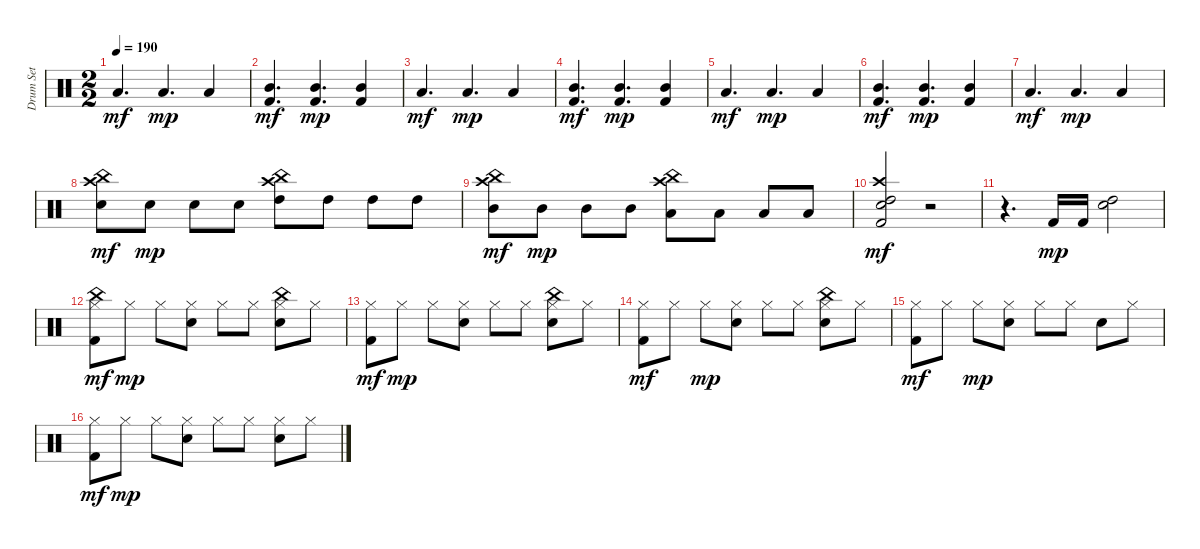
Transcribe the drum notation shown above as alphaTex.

\track ("Drum Set" "Drum Set") {instrument percussion}
\staff {score}
\articulation defaults
\ts (2 2)
\tempo 190
\clef neutral
\ks c "Low Tom (hit)".4{d dy mf} "Low Tom (hit)".4{d dy mp} "Low Tom (hit)".4
|
("Mid Tom (hit)" "Kick (hit) 2").4{d dy mf} ("Kick (hit) 2" "Mid Tom (hit)").4{d dy mp} ("Kick (hit) 2" "Mid Tom (hit)").4 |
"Low Tom (hit)".4{d dy mf} "Low Tom (hit)".4{d dy mp} "Low Tom (hit)".4 |
("Kick (hit) 2" "Mid Tom (hit)").4{d dy mf} ("Mid Tom (hit)" "Kick (hit) 2").4{d dy mp} ("Kick (hit) 2" "Mid Tom (hit)").4 |
"Low Tom (hit)".4{d dy mf} "Low Tom (hit)".4{d dy mp} "Low Tom (hit)".4 |
("Kick (hit) 2" "Mid Tom (hit)").4{d dy mf} ("Mid Tom (hit)" "Kick (hit) 2").4{d dy mp} ("Kick (hit) 2" "Mid Tom (hit)").4 |
"Low Tom (hit)".4{d dy mf} "Low Tom (hit)".4{d dy mp} "Low Tom (hit)".4 |
("Crash high (hit)" "China (hit)" "Snare (hit) 2").8{dy mf} "Snare (hit) 2".8{dy mp} "Snare (hit) 2".8 "Snare (hit) 2".8 ("Crash high (hit)" "High Tom (hit)" "China (hit)").8 "High Tom (hit)".8 "High Tom (hit)".8 "High Tom (hit)".8 |
("Crash high (hit)" "Mid Tom (hit)" "China (hit)").8{dy mf} "Mid Tom (hit)".8{dy mp} "Mid Tom (hit)".8 "Mid Tom (hit)".8 ("Crash high (hit)" "Low Tom (hit)" "China (hit)").8 "Low Tom (hit)".8 "Low Tom (hit)".8 "Low Tom (hit)".8 |
("Kick (hit) 2" "Snare (hit) 2" "High Tom (hit)" "Crash high (hit)").2{dy mf} r.2 |
r.4{d} "Kick (hit) 2".16{dy mp} "Kick (hit) 2".16 ("Snare (hit) 2" "High Tom (hit)").2 |
("Kick (hit) 2" "China (hit)" "Hi-Hat (closed)").8{dy mf} "Hi-Hat (closed)".8{dy mp} "Hi-Hat (closed)".8 ("Snare (hit) 2" "Hi-Hat (closed)").8 "Hi-Hat (closed)".8 "Hi-Hat (closed)".8 ("Snare (hit) 2" "Hi-Hat (closed)" "China (hit)").8 "Hi-Hat (closed)".8 |
("Kick (hit) 2" "Hi-Hat (closed)").8{dy mf} "Hi-Hat (closed)".8{dy mp} "Hi-Hat (closed)".8 ("Snare (hit) 2" "Hi-Hat (closed)").8 "Hi-Hat (closed)".8 "Hi-Hat (closed)".8 ("Snare (hit) 2" "Hi-Hat (closed)" "China (hit)").8 "Hi-Hat (closed)".8 |
("Kick (hit) 2" "Hi-Hat (closed)").8{dy mf} "Hi-Hat (closed)".8 "Hi-Hat (closed)".8{dy mp} ("Snare (hit) 2" "Hi-Hat (closed)").8 "Hi-Hat (closed)".8 "Hi-Hat (closed)".8 ("Snare (hit) 2" "Hi-Hat (closed)" "China (hit)").8 "Hi-Hat (closed)".8 |
("Kick (hit) 2" "Hi-Hat (closed)").8{dy mf} "Hi-Hat (closed)".8 "Hi-Hat (closed)".8{dy mp} ("Snare (hit) 2" "Hi-Hat (closed)").8 "Hi-Hat (closed)".8 "Hi-Hat (closed)".8 "Snare (hit) 2".8 "Hi-Hat (closed)".8 |
("Kick (hit) 2" "Hi-Hat (closed)").8{dy mf} "Hi-Hat (closed)".8{dy mp} "Hi-Hat (closed)".8 ("Snare (hit) 2" "Hi-Hat (closed)").8 "Hi-Hat (closed)".8 "Hi-Hat (closed)".8 ("Snare (hit) 2" "Hi-Hat (closed)").8 "Hi-Hat (closed)".8
